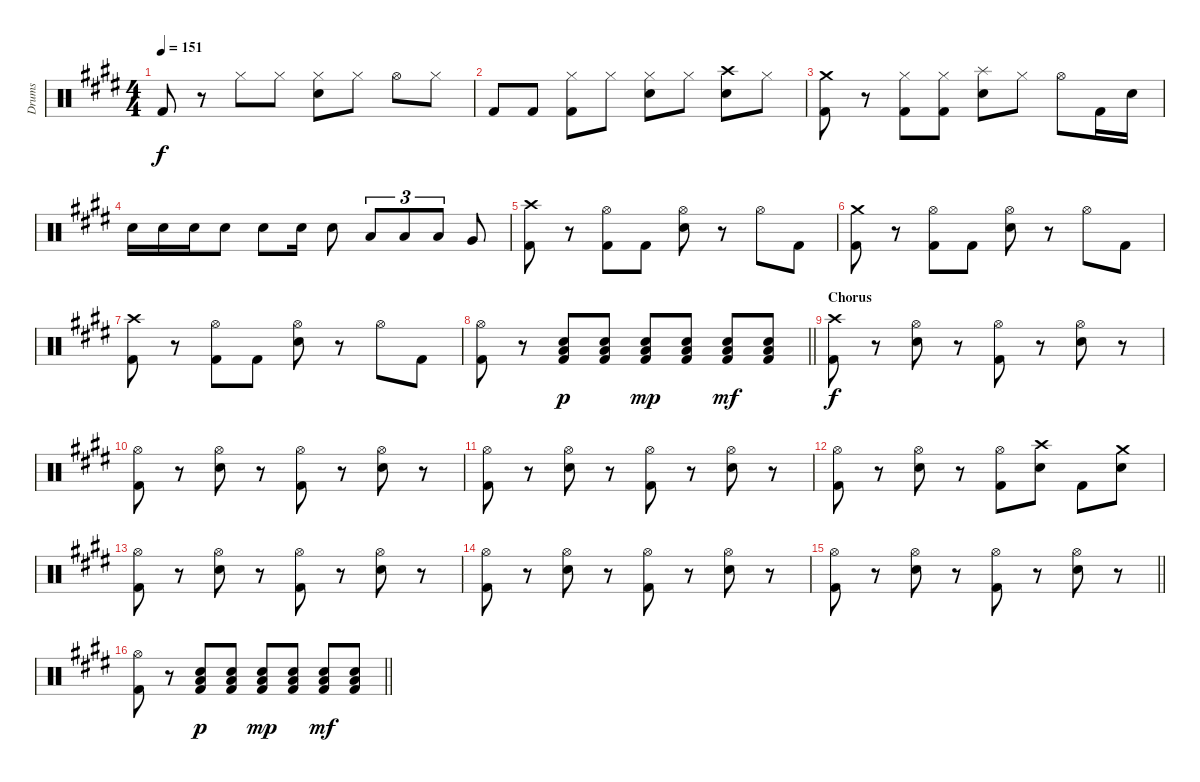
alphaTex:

\track ("Drums" "Drums") {instrument percussion}
\staff {score}
\articulation defaults
\ts (4 4)
\tempo 151
\clef neutral
\ks e "Kick (hit) 2".8{dy f}
r.8 "Hi-Hat (closed)".8 "Hi-Hat (closed)".8 ("Hi-Hat (closed)" "Electric Snare (hit)").8 "Hi-Hat (closed)".8 "Hi-Hat (open)".8 "Hi-Hat (closed)".8 |
"Kick (hit) 2".8 "Kick (hit) 2".8 ("Hi-Hat (closed)" "Kick (hit) 2").8 "Hi-Hat (closed)".8 ("Hi-Hat (closed)" "Electric Snare (hit)").8 "Hi-Hat (closed)".8 ("Crash high (hit)" "Electric Snare (hit)").8 "Hi-Hat (closed)".8 |
("Crash medium (hit)" "Kick (hit) 2").8 r.8 ("Hi-Hat (closed)" "Kick (hit) 2").8 ("Hi-Hat (closed)" "Kick (hit) 2").8 ("Splash (hit)" "Electric Snare (hit)").8 "Hi-Hat (closed)".8 "Hi-Hat (open)".8 "Kick (hit) 2".16 "Electric Snare (hit)".16 |
"Electric Snare (hit)".16 "Electric Snare (hit)".16 "Electric Snare (hit)".16 "Electric Snare (hit)".8 "Electric Snare (hit)".8 "Electric Snare (hit)".16 "Electric Snare (hit)".8 "Low Tom (hit)".8{tu (3 2)} "Low Tom (hit)".8{tu (3 2)} "Low Tom (hit)".8{tu (3 2)} "Very Low Tom (hit)".8 |
("Crash high (hit)" "Kick (hit) 2").8 r.8 ("Hi-Hat (open)" "Kick (hit) 2").8 "Kick (hit) 2".8 ("Hi-Hat (open)" "Electric Snare (hit)").8 r.8 "Hi-Hat (open)".8 "Kick (hit) 2".8 |
("Crash medium (hit)" "Kick (hit) 2").8 r.8 ("Hi-Hat (open)" "Kick (hit) 2").8 "Kick (hit) 2".8 ("Hi-Hat (open)" "Electric Snare (hit)").8 r.8 "Hi-Hat (open)".8 "Kick (hit) 2".8 |
("Crash high (hit)" "Kick (hit) 2").8 r.8 ("Hi-Hat (open)" "Kick (hit) 2").8 "Kick (hit) 2".8 ("Hi-Hat (open)" "Electric Snare (hit)").8 r.8 "Hi-Hat (open)".8 "Kick (hit) 2".8 |
\barLineRight lightlight
("Hi-Hat (open)" "Kick (hit) 2").8 r.8 ("Electric Snare (hit)" "Low Tom (hit)" "Kick (hit) 2").8{dy p} ("Electric Snare (hit)" "Low Tom (hit)" "Kick (hit) 2").8 ("Electric Snare (hit)" "Low Tom (hit)" "Kick (hit) 2").8{dy mp} ("Electric Snare (hit)" "Low Tom (hit)" "Kick (hit) 2").8 ("Electric Snare (hit)" "Low Tom (hit)" "Kick (hit) 2").8{dy mf} ("Electric Snare (hit)" "Low Tom (hit)" "Kick (hit) 2").8 |
\section ("" "Chorus")
("Crash high (hit)" "Kick (hit) 2").8{dy f} r.8 ("Hi-Hat (open)" "Electric Snare (hit)").8 r.8 ("Hi-Hat (open)" "Kick (hit) 2").8 r.8 ("Hi-Hat (open)" "Electric Snare (hit)").8 r.8 |
("Hi-Hat (open)" "Kick (hit) 2").8 r.8 ("Hi-Hat (open)" "Electric Snare (hit)").8 r.8 ("Hi-Hat (open)" "Kick (hit) 2").8 r.8 ("Hi-Hat (open)" "Electric Snare (hit)").8 r.8 |
("Hi-Hat (open)" "Kick (hit) 2").8 r.8 ("Hi-Hat (open)" "Electric Snare (hit)").8 r.8 ("Hi-Hat (open)" "Kick (hit) 2").8 r.8 ("Hi-Hat (open)" "Electric Snare (hit)").8 r.8 |
("Hi-Hat (open)" "Kick (hit) 2").8 r.8 ("Hi-Hat (open)" "Electric Snare (hit)").8 r.8 ("Hi-Hat (open)" "Kick (hit) 2").8 ("Crash high (hit)" "Electric Snare (hit)").8 "Kick (hit) 2".8 ("Crash medium (hit)" "Electric Snare (hit)").8 |
("Hi-Hat (open)" "Kick (hit) 2").8 r.8 ("Hi-Hat (open)" "Electric Snare (hit)").8 r.8 ("Hi-Hat (open)" "Kick (hit) 2").8 r.8 ("Hi-Hat (open)" "Electric Snare (hit)").8 r.8 |
("Hi-Hat (open)" "Kick (hit) 2").8 r.8 ("Hi-Hat (open)" "Electric Snare (hit)").8 r.8 ("Hi-Hat (open)" "Kick (hit) 2").8 r.8 ("Hi-Hat (open)" "Electric Snare (hit)").8 r.8 |
\barLineRight lightlight
("Hi-Hat (open)" "Kick (hit) 2").8 r.8 ("Hi-Hat (open)" "Electric Snare (hit)").8 r.8 ("Hi-Hat (open)" "Kick (hit) 2").8 r.8 ("Hi-Hat (open)" "Electric Snare (hit)").8 r.8 |
\barLineRight lightlight
("Hi-Hat (open)" "Kick (hit) 2").8 r.8 ("Electric Snare (hit)" "Low Tom (hit)" "Kick (hit) 2").8{dy p} ("Electric Snare (hit)" "Low Tom (hit)" "Kick (hit) 2").8 ("Electric Snare (hit)" "Low Tom (hit)" "Kick (hit) 2").8{dy mp} ("Electric Snare (hit)" "Low Tom (hit)" "Kick (hit) 2").8 ("Electric Snare (hit)" "Low Tom (hit)" "Kick (hit) 2").8{dy mf} ("Electric Snare (hit)" "Low Tom (hit)" "Kick (hit) 2").8
